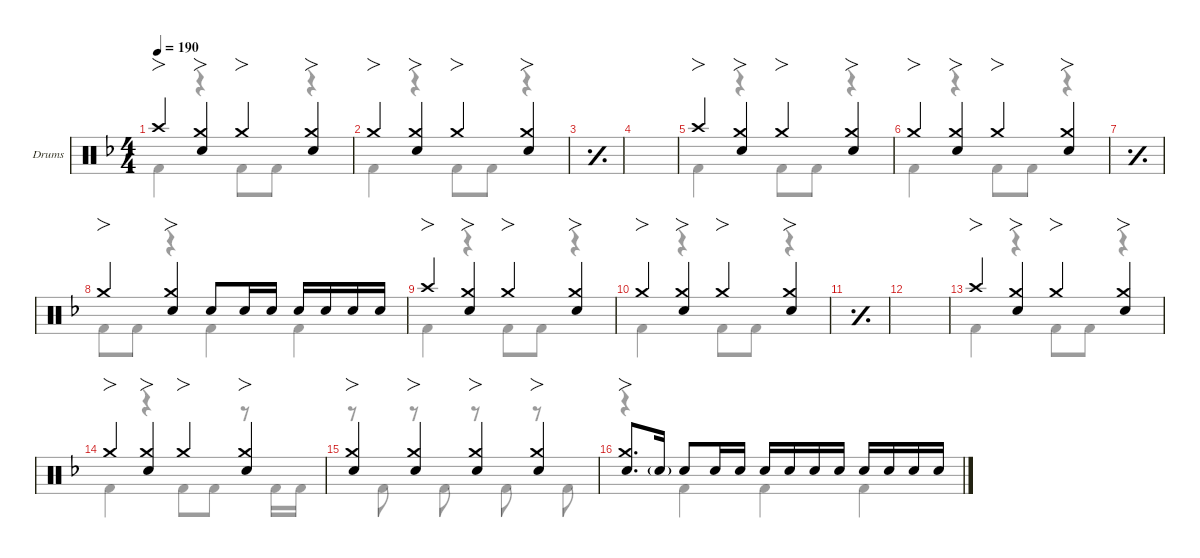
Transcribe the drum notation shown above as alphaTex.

\defaultSystemsLayout 4
\hideDynamics
\bracketExtendMode nobrackets
\firstSystemTrackNameOrientation horizontal
\track ("Drums" "Drums") {defaultSystemsLayout 4 instrument percussion}
\staff {score}
\articulation defaults
\voice
\ts (4 4)
\tempo 190
\clef neutral
\ks dminor "Crash high (hit)"{acc forcenatural}.4{fo dy f}
("Crash medium (hit)"{acc forcenatural} "Snare (hit) 2"{acc forcenatural}).4{fo} "Crash medium (hit)"{acc forcenatural}.4{fo} ("Crash medium (hit)"{acc forcenatural} "Snare (hit) 2"{acc forcenatural}).4{fo} |
"Crash medium (hit)"{acc forcenatural}.4{fo} ("Crash medium (hit)"{acc forcenatural} "Snare (hit) 2"{acc forcenatural}).4{fo} "Crash medium (hit)"{acc forcenatural}.4{fo} ("Crash medium (hit)"{acc forcenatural} "Snare (hit) 2"{acc forcenatural}).4{fo} |
\simile simple
|
|
\simile none "Crash high (hit)"{acc forcenatural}.4{fo}
("Crash medium (hit)"{acc forcenatural} "Snare (hit) 2"{acc forcenatural}).4{fo} "Crash medium (hit)"{acc forcenatural}.4{fo} ("Crash medium (hit)"{acc forcenatural} "Snare (hit) 2"{acc forcenatural}).4{fo} |
"Crash medium (hit)"{acc forcenatural}.4{fo} ("Crash medium (hit)"{acc forcenatural} "Snare (hit) 2"{acc forcenatural}).4{fo} "Crash medium (hit)"{acc forcenatural}.4{fo} ("Crash medium (hit)"{acc forcenatural} "Snare (hit) 2"{acc forcenatural}).4{fo} |
\simile simple
|
\simile none "Crash medium (hit)"{acc forcenatural}.4{fo}
("Snare (hit) 2"{acc forcenatural} "Crash medium (hit)"{acc forcenatural}).4{fo} "Snare (hit) 2"{acc forcenatural}.8 "Snare (hit) 2"{acc forcenatural}.16 "Snare (hit) 2"{acc forcenatural}.16{dy mf beam split} "Snare (hit) 2"{acc forcenatural}.16{dy f} "Snare (hit) 2"{acc forcenatural}.16{dy mf} "Snare (hit) 2"{acc forcenatural}.16{dy f} "Snare (hit) 2"{acc forcenatural}.16{dy mf} |
"Crash high (hit)"{acc forcenatural}.4{fo dy f} ("Crash medium (hit)"{acc forcenatural} "Snare (hit) 2"{acc forcenatural}).4{fo} "Crash medium (hit)"{acc forcenatural}.4{fo} ("Crash medium (hit)"{acc forcenatural} "Snare (hit) 2"{acc forcenatural}).4{fo} |
"Crash medium (hit)"{acc forcenatural}.4{fo} ("Crash medium (hit)"{acc forcenatural} "Snare (hit) 2"{acc forcenatural}).4{fo} "Crash medium (hit)"{acc forcenatural}.4{fo} ("Crash medium (hit)"{acc forcenatural} "Snare (hit) 2"{acc forcenatural}).4{fo} |
\simile simple
|
|
\simile none "Crash high (hit)"{acc forcenatural}.4{fo}
("Crash medium (hit)"{acc forcenatural} "Snare (hit) 2"{acc forcenatural}).4{fo} "Crash medium (hit)"{acc forcenatural}.4{fo} ("Crash medium (hit)"{acc forcenatural} "Snare (hit) 2"{acc forcenatural}).4{fo} |
"Crash medium (hit)"{acc forcenatural}.4{fo} ("Crash medium (hit)"{acc forcenatural} "Snare (hit) 2"{acc forcenatural}).4{fo} "Crash medium (hit)"{acc forcenatural}.4{fo} ("Crash medium (hit)"{acc forcenatural} "Snare (hit) 2"{acc forcenatural}).4{fo} |
("Snare (hit) 2"{acc forcenatural} "Crash medium (hit)"{acc forcenatural}).4{fo} ("Snare (hit) 2"{acc forcenatural} "Crash medium (hit)"{acc forcenatural}).4{fo} ("Snare (hit) 2"{acc forcenatural} "Crash medium (hit)"{acc forcenatural}).4{fo} ("Snare (hit) 2"{acc forcenatural} "Crash medium (hit)"{acc forcenatural}).4{fo} |
("Snare (hit) 2"{acc forcenatural} "Crash medium (hit)"{acc forcenatural}).8{fo d} "Snare (hit) 2"{g acc forcenatural}.16{dy mf beam split} "Snare (hit) 2"{acc forcenatural}.8 "Snare (hit) 2"{acc forcenatural}.16 "Snare (hit) 2"{acc forcenatural}.16 "Snare (hit) 2"{acc forcenatural}.16{dy f} "Snare (hit) 2"{acc forcenatural}.16{dy mf} "Snare (hit) 2"{acc forcenatural}.16{dy f} "Snare (hit) 2"{acc forcenatural}.16{dy mf beam split} "Snare (hit) 2"{acc forcenatural}.16{dy f} "Snare (hit) 2"{acc forcenatural}.16{dy mf} "Snare (hit) 2"{acc forcenatural}.16{dy f} "Snare (hit) 2"{acc forcenatural}.16{dy mf}
\voice
\clef neutral
\ottava regular
\simile none
\ks dminor "Kick (hit) 2"{acc forcenatural}.4{dy f}
r.4 "Kick (hit) 2"{acc forcenatural}.8 "Kick (hit) 2"{acc forcenatural}.8 r.4 |
"Kick (hit) 2"{acc forcenatural}.4 r.4 "Kick (hit) 2"{acc forcenatural}.8 "Kick (hit) 2"{acc forcenatural}.8 r.4 |
\simile simple
|
|
\simile none "Kick (hit) 2"{acc forcenatural}.4
r.4 "Kick (hit) 2"{acc forcenatural}.8 "Kick (hit) 2"{acc forcenatural}.8 r.4 |
"Kick (hit) 2"{acc forcenatural}.4 r.4 "Kick (hit) 2"{acc forcenatural}.8 "Kick (hit) 2"{acc forcenatural}.8 r.4 |
\simile simple
|
\simile none "Kick (hit) 2"{acc forcenatural}.8 "Kick (hit) 2"{acc forcenatural}.8
r.4 "Kick (hit) 2"{acc forcenatural}.4 "Kick (hit) 2"{acc forcenatural}.4 |
"Kick (hit) 2"{acc forcenatural}.4 r.4 "Kick (hit) 2"{acc forcenatural}.8 "Kick (hit) 2"{acc forcenatural}.8 r.4 |
"Kick (hit) 2"{acc forcenatural}.4 r.4 "Kick (hit) 2"{acc forcenatural}.8 "Kick (hit) 2"{acc forcenatural}.8 r.4 |
\simile simple
|
|
\simile none "Kick (hit) 2"{acc forcenatural}.4
r.4 "Kick (hit) 2"{acc forcenatural}.8 "Kick (hit) 2"{acc forcenatural}.8 r.4 |
"Kick (hit) 2"{acc forcenatural}.4 r.4 "Kick (hit) 2"{acc forcenatural}.8 "Kick (hit) 2"{acc forcenatural}.8{beam split} r.8{beam split} "Kick (hit) 2"{acc forcenatural}.16 "Kick (hit) 2"{acc forcenatural}.16 |
r.8 "Kick (hit) 2"{acc forcenatural}.8 r.8 "Kick (hit) 2"{acc forcenatural}.8 r.8 "Kick (hit) 2"{acc forcenatural}.8 r.8 "Kick (hit) 2"{acc forcenatural}.8 |
r.4 "Kick (hit) 2"{acc forcenatural}.4 "Kick (hit) 2"{acc forcenatural}.4 "Kick (hit) 2"{acc forcenatural}.4
